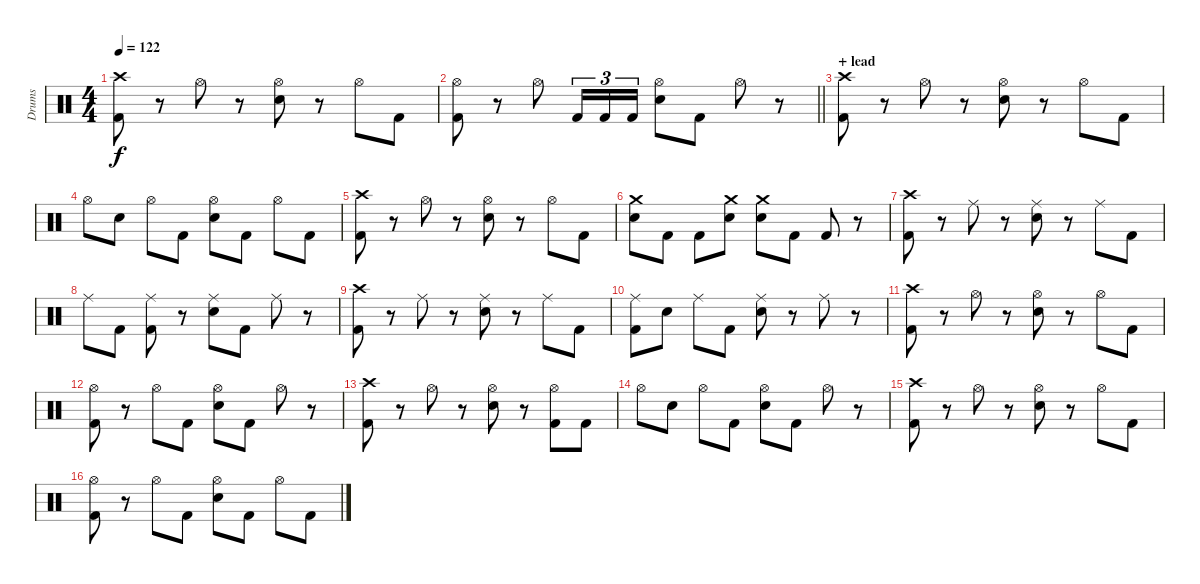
\track ("Drums" "Drums") {instrument percussion}
\staff {score}
\articulation defaults
\ts (4 4)
\tempo 122
\clef neutral
\ks c
("Crash high (hit)" "Kick (hit) 2").8{dy f} r.8 "Hi-Hat (open)".8 r.8 ("Hi-Hat (open)" "Electric Snare (hit)").8 r.8 "Hi-Hat (open)".8 "Kick (hit) 2".8 |
\barLineRight lightlight
("Hi-Hat (open)" "Kick (hit) 2").8 r.8 "Hi-Hat (open)".8 "Kick (hit) 2".16{tu (3 2)} "Kick (hit) 2".16{tu (3 2)} "Kick (hit) 2".16{tu (3 2)} ("Hi-Hat (open)" "Electric Snare (hit)").8 "Kick (hit) 2".8 "Hi-Hat (open)".8 r.8 |
\section ("" "+ lead")
("Crash high (hit)" "Kick (hit) 2").8 r.8 "Hi-Hat (open)".8 r.8 ("Hi-Hat (open)" "Electric Snare (hit)").8 r.8 "Hi-Hat (open)".8 "Kick (hit) 2".8 |
"Hi-Hat (open)".8 "Electric Snare (hit)".8 "Hi-Hat (open)".8 "Kick (hit) 2".8 ("Hi-Hat (open)" "Electric Snare (hit)").8 "Kick (hit) 2".8 "Hi-Hat (open)".8 "Kick (hit) 2".8 |
("Crash high (hit)" "Kick (hit) 2").8 r.8 "Hi-Hat (open)".8 r.8 ("Hi-Hat (open)" "Electric Snare (hit)").8 r.8 "Hi-Hat (open)".8 "Kick (hit) 2".8 |
("Crash medium (hit)" "Electric Snare (hit)").8 "Kick (hit) 2".8 "Kick (hit) 2".8 ("Crash medium (hit)" "Electric Snare (hit)").8 ("Crash medium (hit)" "Electric Snare (hit)").8 "Kick (hit) 2".8 "Kick (hit) 2".8 r.8 |
("Crash high (hit)" "Kick (hit) 2").8 r.8 "Ride (middle)".8 r.8 ("Ride (middle)" "Electric Snare (hit)").8 r.8 "Ride (middle)".8 "Kick (hit) 2".8 |
"Ride (middle)".8 "Kick (hit) 2".8 ("Ride (middle)" "Kick (hit) 2").8 r.8 ("Ride (middle)" "Electric Snare (hit)").8 "Kick (hit) 2".8 "Ride (middle)".8 r.8 |
("Crash high (hit)" "Kick (hit) 2").8 r.8 "Ride (middle)".8 r.8 ("Ride (middle)" "Electric Snare (hit)").8 r.8 "Ride (middle)".8 "Kick (hit) 2".8 |
("Ride (middle)" "Kick (hit) 2").8 "Electric Snare (hit)".8 "Ride (middle)".8 "Kick (hit) 2".8 ("Ride (middle)" "Electric Snare (hit)").8 r.8 "Ride (middle)".8 r.8 |
("Crash high (hit)" "Kick (hit) 2").8 r.8 "Hi-Hat (open)".8 r.8 ("Hi-Hat (open)" "Electric Snare (hit)").8 r.8 "Hi-Hat (open)".8 "Kick (hit) 2".8 |
("Hi-Hat (open)" "Kick (hit) 2").8 r.8 "Hi-Hat (open)".8 "Kick (hit) 2".8 ("Hi-Hat (open)" "Electric Snare (hit)").8 "Kick (hit) 2".8 "Hi-Hat (open)".8 r.8 |
("Crash high (hit)" "Kick (hit) 2").8 r.8 "Hi-Hat (open)".8 r.8 ("Hi-Hat (open)" "Electric Snare (hit)").8 r.8 ("Hi-Hat (open)" "Kick (hit) 2").8 "Kick (hit) 2".8 |
"Hi-Hat (open)".8 "Electric Snare (hit)".8 "Hi-Hat (open)".8 "Kick (hit) 2".8 ("Hi-Hat (open)" "Electric Snare (hit)").8 "Kick (hit) 2".8 "Hi-Hat (open)".8 r.8 |
("Crash high (hit)" "Kick (hit) 2").8 r.8 "Hi-Hat (open)".8 r.8 ("Hi-Hat (open)" "Electric Snare (hit)").8 r.8 "Hi-Hat (open)".8 "Kick (hit) 2".8 |
("Hi-Hat (open)" "Kick (hit) 2").8 r.8 "Hi-Hat (open)".8 "Kick (hit) 2".8 ("Hi-Hat (open)" "Electric Snare (hit)").8 "Kick (hit) 2".8 "Hi-Hat (open)".8 "Kick (hit) 2".8
